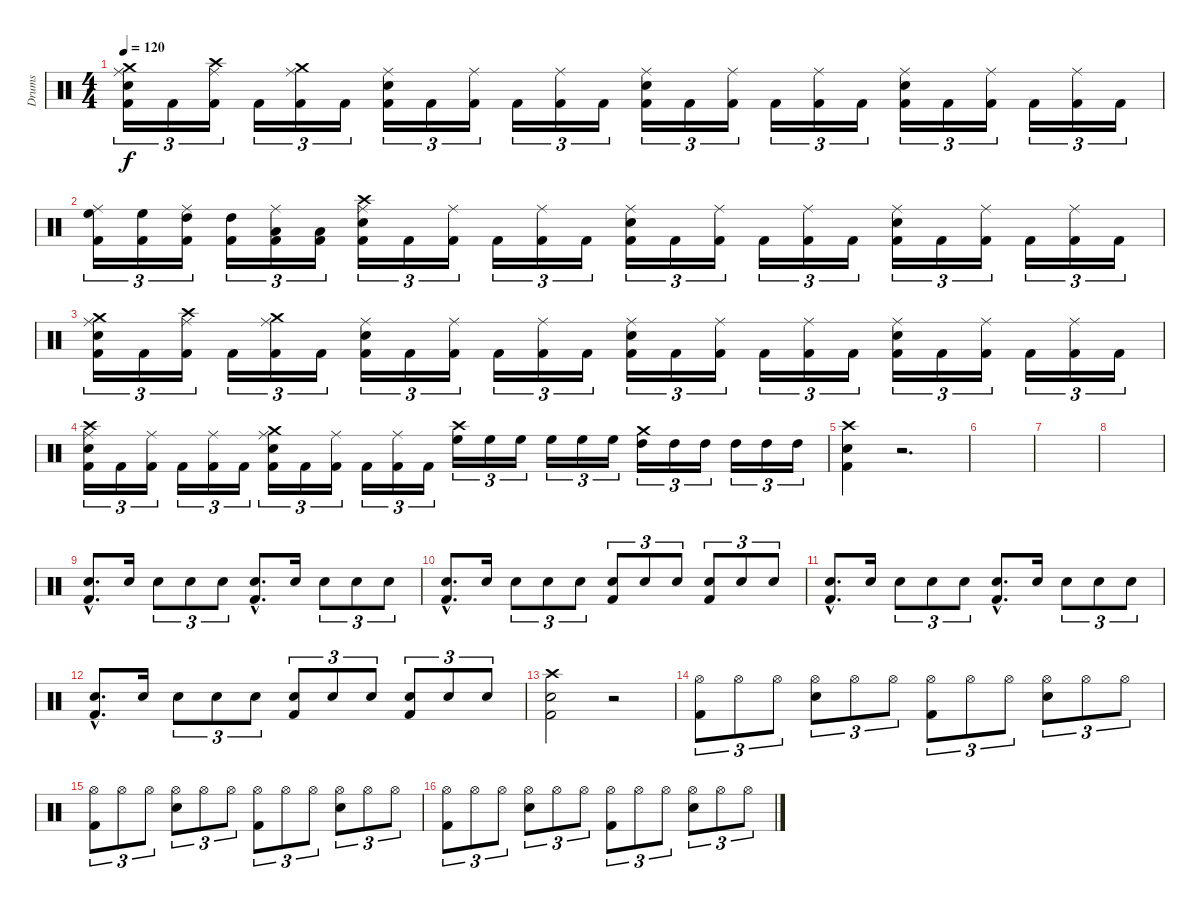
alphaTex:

\track ("Drums" "Drums") {instrument percussion}
\staff {score}
\articulation defaults
\ts (4 4)
\tempo 120
\clef neutral
\ks c
("Crash medium (hit)" "Ride (middle)" "Snare (hit) 2" "Kick (hit) 2").16{tu (3 2) dy f} "Kick (hit) 2".16{tu (3 2)} ("Crash high (hit)" "Ride (middle)" "Kick (hit) 2").16{tu (3 2)} "Kick (hit) 2".16{tu (3 2)} ("Crash medium (hit)" "Ride (middle)" "Kick (hit) 2").16{tu (3 2)} "Kick (hit) 2".16{tu (3 2)} ("Ride (middle)" "Snare (hit) 2" "Kick (hit) 2").16{tu (3 2)} "Kick (hit) 2".16{tu (3 2)} ("Ride (middle)" "Kick (hit) 2").16{tu (3 2)} "Kick (hit) 2".16{tu (3 2)} ("Ride (middle)" "Kick (hit) 2").16{tu (3 2)} "Kick (hit) 2".16{tu (3 2)} ("Ride (middle)" "Snare (hit) 2" "Kick (hit) 2").16{tu (3 2)} "Kick (hit) 2".16{tu (3 2)} ("Ride (middle)" "Kick (hit) 2").16{tu (3 2)} "Kick (hit) 2".16{tu (3 2)} ("Ride (middle)" "Kick (hit) 2").16{tu (3 2)} "Kick (hit) 2".16{tu (3 2)} ("Ride (middle)" "Snare (hit) 2" "Kick (hit) 2").16{tu (3 2)} "Kick (hit) 2".16{tu (3 2)} ("Ride (middle)" "Kick (hit) 2").16{tu (3 2)} "Kick (hit) 2".16{tu (3 2)} ("Ride (middle)" "Kick (hit) 2").16{tu (3 2)} "Kick (hit) 2".16{tu (3 2)} |
("Ride (middle)" "High Floor Tom (hit)" "Kick (hit) 2").16{tu (3 2)} ("High Floor Tom (hit)" "Kick (hit) 2").16{tu (3 2)} ("Ride (middle)" "High Tom (hit)" "Kick (hit) 2").16{tu (3 2)} ("High Tom (hit)" "Kick (hit) 2").16{tu (3 2)} ("Ride (middle)" "Low Tom (hit)" "Kick (hit) 2").16{tu (3 2)} ("Low Tom (hit)" "Kick (hit) 2").16{tu (3 2)} ("Crash high (hit)" "Ride (middle)" "Snare (hit) 2" "Kick (hit) 2").16{tu (3 2)} "Kick (hit) 2".16{tu (3 2)} ("Ride (middle)" "Kick (hit) 2").16{tu (3 2)} "Kick (hit) 2".16{tu (3 2)} ("Ride (middle)" "Kick (hit) 2").16{tu (3 2)} "Kick (hit) 2".16{tu (3 2)} ("Ride (middle)" "Snare (hit) 2" "Kick (hit) 2").16{tu (3 2)} "Kick (hit) 2".16{tu (3 2)} ("Ride (middle)" "Kick (hit) 2").16{tu (3 2)} "Kick (hit) 2".16{tu (3 2)} ("Ride (middle)" "Kick (hit) 2").16{tu (3 2)} "Kick (hit) 2".16{tu (3 2)} ("Ride (middle)" "Snare (hit) 2" "Kick (hit) 2").16{tu (3 2)} "Kick (hit) 2".16{tu (3 2)} ("Ride (middle)" "Kick (hit) 2").16{tu (3 2)} "Kick (hit) 2".16{tu (3 2)} ("Ride (middle)" "Kick (hit) 2").16{tu (3 2)} "Kick (hit) 2".16{tu (3 2)} |
("Crash medium (hit)" "Ride (middle)" "Snare (hit) 2" "Kick (hit) 2").16{tu (3 2)} "Kick (hit) 2".16{tu (3 2)} ("Crash high (hit)" "Ride (middle)" "Kick (hit) 2").16{tu (3 2)} "Kick (hit) 2".16{tu (3 2)} ("Crash medium (hit)" "Ride (middle)" "Kick (hit) 2").16{tu (3 2)} "Kick (hit) 2".16{tu (3 2)} ("Ride (middle)" "Snare (hit) 2" "Kick (hit) 2").16{tu (3 2)} "Kick (hit) 2".16{tu (3 2)} ("Ride (middle)" "Kick (hit) 2").16{tu (3 2)} "Kick (hit) 2".16{tu (3 2)} ("Ride (middle)" "Kick (hit) 2").16{tu (3 2)} "Kick (hit) 2".16{tu (3 2)} ("Ride (middle)" "Snare (hit) 2" "Kick (hit) 2").16{tu (3 2)} "Kick (hit) 2".16{tu (3 2)} ("Ride (middle)" "Kick (hit) 2").16{tu (3 2)} "Kick (hit) 2".16{tu (3 2)} ("Ride (middle)" "Kick (hit) 2").16{tu (3 2)} "Kick (hit) 2".16{tu (3 2)} ("Ride (middle)" "Snare (hit) 2" "Kick (hit) 2").16{tu (3 2)} "Kick (hit) 2".16{tu (3 2)} ("Ride (middle)" "Kick (hit) 2").16{tu (3 2)} "Kick (hit) 2".16{tu (3 2)} ("Ride (middle)" "Kick (hit) 2").16{tu (3 2)} "Kick (hit) 2".16{tu (3 2)} |
("Crash high (hit)" "Ride (middle)" "Snare (hit) 2" "Kick (hit) 2").16{tu (3 2)} "Kick (hit) 2".16{tu (3 2)} ("Ride (middle)" "Kick (hit) 2").16{tu (3 2)} "Kick (hit) 2".16{tu (3 2)} ("Ride (middle)" "Kick (hit) 2").16{tu (3 2)} "Kick (hit) 2".16{tu (3 2)} ("Crash medium (hit)" "Ride (middle)" "Snare (hit) 2" "Kick (hit) 2").16{tu (3 2)} "Kick (hit) 2".16{tu (3 2)} ("Ride (middle)" "Kick (hit) 2").16{tu (3 2)} "Kick (hit) 2".16{tu (3 2)} ("Ride (middle)" "Kick (hit) 2").16{tu (3 2)} "Kick (hit) 2".16{tu (3 2)} ("Crash high (hit)" "High Floor Tom (hit)").16{tu (3 2)} "High Floor Tom (hit)".16{tu (3 2)} "High Floor Tom (hit)".16{tu (3 2)} "High Floor Tom (hit)".16{tu (3 2)} "High Floor Tom (hit)".16{tu (3 2)} "High Floor Tom (hit)".16{tu (3 2)} ("Crash medium (hit)" "High Tom (hit)").16{tu (3 2)} "High Tom (hit)".16{tu (3 2)} "High Tom (hit)".16{tu (3 2)} "High Tom (hit)".16{tu (3 2)} "High Tom (hit)".16{tu (3 2)} "High Tom (hit)".16{tu (3 2)} |
("Crash high (hit)" "Snare (hit) 2" "Kick (hit) 2").4 r.2{d} |
|
|
|
("Snare (hit) 2"{hac} "Kick (hit) 2"{hac}).8{d} "Snare (hit) 2".16 "Snare (hit) 2".8{tu (3 2)} "Snare (hit) 2".8{tu (3 2)} "Snare (hit) 2".8{tu (3 2)} ("Snare (hit) 2"{hac} "Kick (hit) 2"{hac}).8{d} "Snare (hit) 2".16 "Snare (hit) 2".8{tu (3 2)} "Snare (hit) 2".8{tu (3 2)} "Snare (hit) 2".8{tu (3 2)} |
("Snare (hit) 2"{hac} "Kick (hit) 2"{hac}).8{d} "Snare (hit) 2".16 "Snare (hit) 2".8{tu (3 2)} "Snare (hit) 2".8{tu (3 2)} "Snare (hit) 2".8{tu (3 2)} ("Snare (hit) 2" "Kick (hit) 2").8{tu (3 2)} "Snare (hit) 2".8{tu (3 2)} "Snare (hit) 2".8{tu (3 2)} ("Snare (hit) 2" "Kick (hit) 2").8{tu (3 2)} "Snare (hit) 2".8{tu (3 2)} "Snare (hit) 2".8{tu (3 2)} |
("Snare (hit) 2"{hac} "Kick (hit) 2"{hac}).8{d} "Snare (hit) 2".16 "Snare (hit) 2".8{tu (3 2)} "Snare (hit) 2".8{tu (3 2)} "Snare (hit) 2".8{tu (3 2)} ("Snare (hit) 2"{hac} "Kick (hit) 2"{hac}).8{d} "Snare (hit) 2".16 "Snare (hit) 2".8{tu (3 2)} "Snare (hit) 2".8{tu (3 2)} "Snare (hit) 2".8{tu (3 2)} |
("Snare (hit) 2"{hac} "Kick (hit) 2"{hac}).8{d} "Snare (hit) 2".16 "Snare (hit) 2".8{tu (3 2)} "Snare (hit) 2".8{tu (3 2)} "Snare (hit) 2".8{tu (3 2)} ("Snare (hit) 2" "Kick (hit) 2").8{tu (3 2)} "Snare (hit) 2".8{tu (3 2)} "Snare (hit) 2".8{tu (3 2)} ("Snare (hit) 2" "Kick (hit) 2").8{tu (3 2)} "Snare (hit) 2".8{tu (3 2)} "Snare (hit) 2".8{tu (3 2)} |
("Crash high (hit)" "Snare (hit) 2" "Kick (hit) 2").2 r.2 |
("Hi-Hat (open)" "Kick (hit) 2").8{tu (3 2)} "Hi-Hat (open)".8{tu (3 2)} "Hi-Hat (open)".8{tu (3 2)} ("Hi-Hat (open)" "Snare (hit) 2").8{tu (3 2)} "Hi-Hat (open)".8{tu (3 2)} "Hi-Hat (open)".8{tu (3 2)} ("Hi-Hat (open)" "Kick (hit) 2").8{tu (3 2)} "Hi-Hat (open)".8{tu (3 2)} "Hi-Hat (open)".8{tu (3 2)} ("Hi-Hat (open)" "Snare (hit) 2").8{tu (3 2)} "Hi-Hat (open)".8{tu (3 2)} "Hi-Hat (open)".8{tu (3 2)} |
("Hi-Hat (open)" "Kick (hit) 2").8{tu (3 2)} "Hi-Hat (open)".8{tu (3 2)} "Hi-Hat (open)".8{tu (3 2)} ("Hi-Hat (open)" "Snare (hit) 2").8{tu (3 2)} "Hi-Hat (open)".8{tu (3 2)} "Hi-Hat (open)".8{tu (3 2)} ("Hi-Hat (open)" "Kick (hit) 2").8{tu (3 2)} "Hi-Hat (open)".8{tu (3 2)} "Hi-Hat (open)".8{tu (3 2)} ("Hi-Hat (open)" "Snare (hit) 2").8{tu (3 2)} "Hi-Hat (open)".8{tu (3 2)} "Hi-Hat (open)".8{tu (3 2)} |
("Hi-Hat (open)" "Kick (hit) 2").8{tu (3 2)} "Hi-Hat (open)".8{tu (3 2)} "Hi-Hat (open)".8{tu (3 2)} ("Hi-Hat (open)" "Snare (hit) 2").8{tu (3 2)} "Hi-Hat (open)".8{tu (3 2)} "Hi-Hat (open)".8{tu (3 2)} ("Hi-Hat (open)" "Kick (hit) 2").8{tu (3 2)} "Hi-Hat (open)".8{tu (3 2)} "Hi-Hat (open)".8{tu (3 2)} ("Hi-Hat (open)" "Snare (hit) 2").8{tu (3 2)} "Hi-Hat (open)".8{tu (3 2)} "Hi-Hat (open)".8{tu (3 2)}
